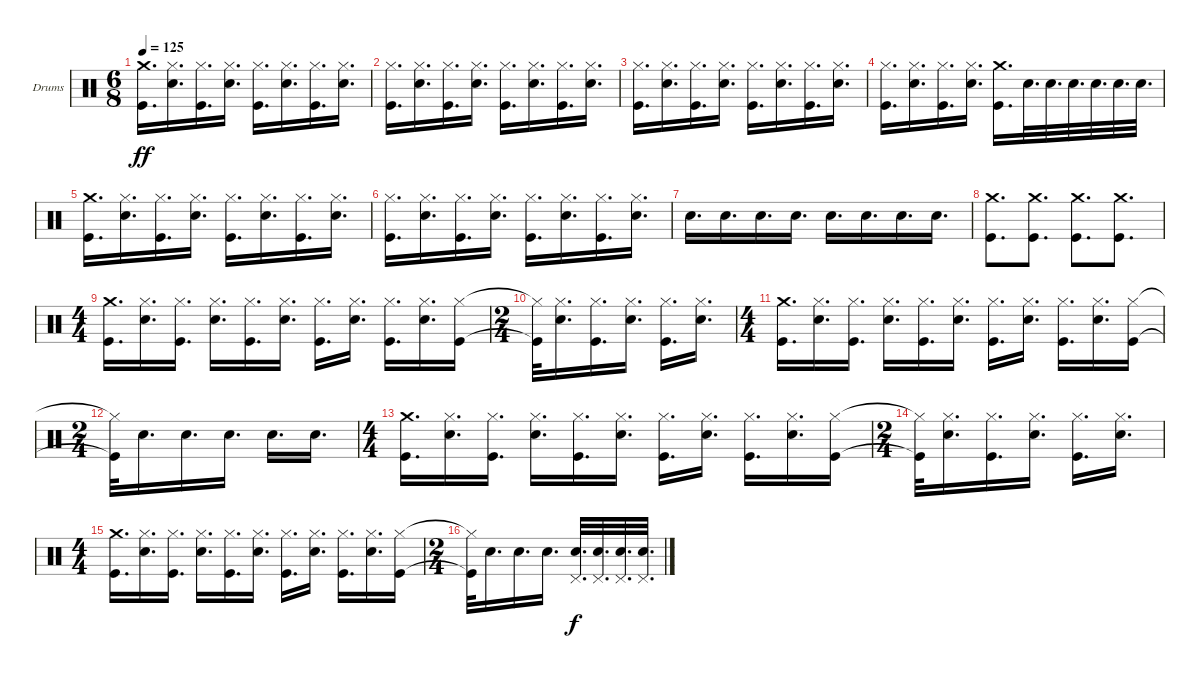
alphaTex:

\defaultSystemsLayout 4
\bracketExtendMode groupsimilarinstruments
\firstSystemTrackNameOrientation horizontal
\otherSystemsTrackNameOrientation horizontal
\track ("Drumkit" "Drums") {instrument percussion}
\staff {score}
\articulation defaults
\ts (6 8)
\tempo 125
\clef neutral
\ks c
("Kick (hit)" "Crash medium (hit)").16{d dy ff} ("Snare (hit) 2" "Hi-Hat (closed)").16{d} ("Kick (hit)" "Hi-Hat (closed)").16{d} ("Snare (hit) 2" "Hi-Hat (closed)").16{d} ("Kick (hit)" "Hi-Hat (closed)").16{d} ("Snare (hit) 2" "Hi-Hat (closed)").16{d} ("Kick (hit)" "Hi-Hat (closed)").16{d} ("Snare (hit) 2" "Hi-Hat (closed)").16{d} |
("Kick (hit)" "Hi-Hat (closed)").16{d} ("Snare (hit) 2" "Hi-Hat (closed)").16{d} ("Kick (hit)" "Hi-Hat (closed)").16{d} ("Snare (hit) 2" "Hi-Hat (closed)").16{d} ("Kick (hit)" "Hi-Hat (closed)").16{d} ("Snare (hit) 2" "Hi-Hat (closed)").16{d} ("Kick (hit)" "Hi-Hat (closed)").16{d} ("Snare (hit) 2" "Hi-Hat (closed)").16{d} |
("Kick (hit)" "Hi-Hat (closed)").16{d} ("Snare (hit) 2" "Hi-Hat (closed)").16{d} ("Kick (hit)" "Hi-Hat (closed)").16{d} ("Snare (hit) 2" "Hi-Hat (closed)").16{d} ("Kick (hit)" "Hi-Hat (closed)").16{d} ("Snare (hit) 2" "Hi-Hat (closed)").16{d} ("Kick (hit)" "Hi-Hat (closed)").16{d} ("Snare (hit) 2" "Hi-Hat (closed)").16{d} |
("Kick (hit)" "Hi-Hat (closed)").16{d} ("Snare (hit) 2" "Hi-Hat (closed)").16{d} ("Kick (hit)" "Hi-Hat (closed)").16{d} ("Snare (hit) 2" "Hi-Hat (closed)").16{d} ("Kick (hit)" "Crash medium (hit)").16{d} "Snare (hit) 2".32{d} "Snare (hit) 2".32{d} "Snare (hit) 2".32{d} "Snare (hit) 2".32{d} "Snare (hit) 2".32{d} "Snare (hit) 2".32{d} |
("Kick (hit)" "Crash medium (hit)").16{d} ("Snare (hit) 2" "Hi-Hat (closed)").16{d} ("Kick (hit)" "Hi-Hat (closed)").16{d} ("Snare (hit) 2" "Hi-Hat (closed)").16{d} ("Kick (hit)" "Hi-Hat (closed)").16{d} ("Snare (hit) 2" "Hi-Hat (closed)").16{d} ("Kick (hit)" "Hi-Hat (closed)").16{d} ("Snare (hit) 2" "Hi-Hat (closed)").16{d} |
("Kick (hit)" "Hi-Hat (closed)").16{d} ("Snare (hit) 2" "Hi-Hat (closed)").16{d} ("Kick (hit)" "Hi-Hat (closed)").16{d} ("Snare (hit) 2" "Hi-Hat (closed)").16{d} ("Kick (hit)" "Hi-Hat (closed)").16{d} ("Snare (hit) 2" "Hi-Hat (closed)").16{d} ("Kick (hit)" "Hi-Hat (closed)").16{d} ("Snare (hit) 2" "Hi-Hat (closed)").16{d} |
"Snare (hit) 2".16{d} "Snare (hit) 2".16{d} "Snare (hit) 2".16{d} "Snare (hit) 2".16{d} "Snare (hit) 2".16{d} "Snare (hit) 2".16{d} "Snare (hit) 2".16{d} "Snare (hit) 2".16{d} |
("Kick (hit)" "Crash medium (hit)").8{d} ("Kick (hit)" "Crash medium (hit)").8{d} ("Kick (hit)" "Crash medium (hit)").8{d} ("Kick (hit)" "Crash medium (hit)").8{d} |
\ts (4 4)
("Kick (hit)" "Crash medium (hit)").16{d} ("Snare (hit) 2" "Hi-Hat (closed)").16{d} ("Kick (hit)" "Hi-Hat (closed)").16{d} ("Snare (hit) 2" "Hi-Hat (closed)").16{d} ("Kick (hit)" "Hi-Hat (closed)").16{d} ("Snare (hit) 2" "Hi-Hat (closed)").16{d} ("Kick (hit)" "Hi-Hat (closed)").16{d} ("Snare (hit) 2" "Hi-Hat (closed)").16{d} ("Kick (hit)" "Hi-Hat (closed)").16{d} ("Snare (hit) 2" "Hi-Hat (closed)").16{d} ("Kick (hit)" "Hi-Hat (closed)").16 |
\ts (2 4)
("Kick (hit)"{t} "Hi-Hat (closed)"{t}).32 ("Snare (hit) 2" "Hi-Hat (closed)").16{d} ("Kick (hit)" "Hi-Hat (closed)").16{d} ("Snare (hit) 2" "Hi-Hat (closed)").16{d} ("Kick (hit)" "Hi-Hat (closed)").16{d} ("Snare (hit) 2" "Hi-Hat (closed)").16{d} |
\ts (4 4)
("Kick (hit)" "Crash medium (hit)").16{d} ("Snare (hit) 2" "Hi-Hat (closed)").16{d} ("Kick (hit)" "Hi-Hat (closed)").16{d} ("Snare (hit) 2" "Hi-Hat (closed)").16{d} ("Kick (hit)" "Hi-Hat (closed)").16{d} ("Snare (hit) 2" "Hi-Hat (closed)").16{d} ("Kick (hit)" "Hi-Hat (closed)").16{d} ("Snare (hit) 2" "Hi-Hat (closed)").16{d} ("Kick (hit)" "Hi-Hat (closed)").16{d} ("Snare (hit) 2" "Hi-Hat (closed)").16{d} ("Kick (hit)" "Hi-Hat (closed)").16 |
\ts (2 4)
("Kick (hit)"{t} "Hi-Hat (closed)"{t}).32 "Snare (hit) 2".16{d} "Snare (hit) 2".16{d} "Snare (hit) 2".16{d} "Snare (hit) 2".16{d} "Snare (hit) 2".16{d} |
\ts (4 4)
("Kick (hit)" "Crash medium (hit)").16{d} ("Snare (hit) 2" "Hi-Hat (closed)").16{d} ("Kick (hit)" "Hi-Hat (closed)").16{d} ("Snare (hit) 2" "Hi-Hat (closed)").16{d} ("Kick (hit)" "Hi-Hat (closed)").16{d} ("Snare (hit) 2" "Hi-Hat (closed)").16{d} ("Kick (hit)" "Hi-Hat (closed)").16{d} ("Snare (hit) 2" "Hi-Hat (closed)").16{d} ("Kick (hit)" "Hi-Hat (closed)").16{d} ("Snare (hit) 2" "Hi-Hat (closed)").16{d} ("Kick (hit)" "Hi-Hat (closed)").16 |
\ts (2 4)
("Kick (hit)"{t} "Hi-Hat (closed)"{t}).32 ("Snare (hit) 2" "Hi-Hat (closed)").16{d} ("Kick (hit)" "Hi-Hat (closed)").16{d} ("Snare (hit) 2" "Hi-Hat (closed)").16{d} ("Kick (hit)" "Hi-Hat (closed)").16{d} ("Snare (hit) 2" "Hi-Hat (closed)").16{d} |
\ts (4 4)
("Kick (hit)" "Crash medium (hit)").16{d} ("Snare (hit) 2" "Hi-Hat (closed)").16{d} ("Kick (hit)" "Hi-Hat (closed)").16{d} ("Snare (hit) 2" "Hi-Hat (closed)").16{d} ("Kick (hit)" "Hi-Hat (closed)").16{d} ("Snare (hit) 2" "Hi-Hat (closed)").16{d} ("Kick (hit)" "Hi-Hat (closed)").16{d} ("Snare (hit) 2" "Hi-Hat (closed)").16{d} ("Kick (hit)" "Hi-Hat (closed)").16{d} ("Snare (hit) 2" "Hi-Hat (closed)").16{d} ("Kick (hit)" "Hi-Hat (closed)").16 |
\ts (2 4)
("Kick (hit)"{t} "Hi-Hat (closed)"{t}).32 "Snare (hit) 2".16{d} "Snare (hit) 2".16{d} "Snare (hit) 2".16{d} ("Pedal Hi-Hat (hit)" "Snare (hit) 2").32{d dy f} ("Pedal Hi-Hat (hit)" "Snare (hit) 2").32{d} ("Pedal Hi-Hat (hit)" "Snare (hit) 2").32{d} ("Pedal Hi-Hat (hit)" "Snare (hit) 2").32{d}
